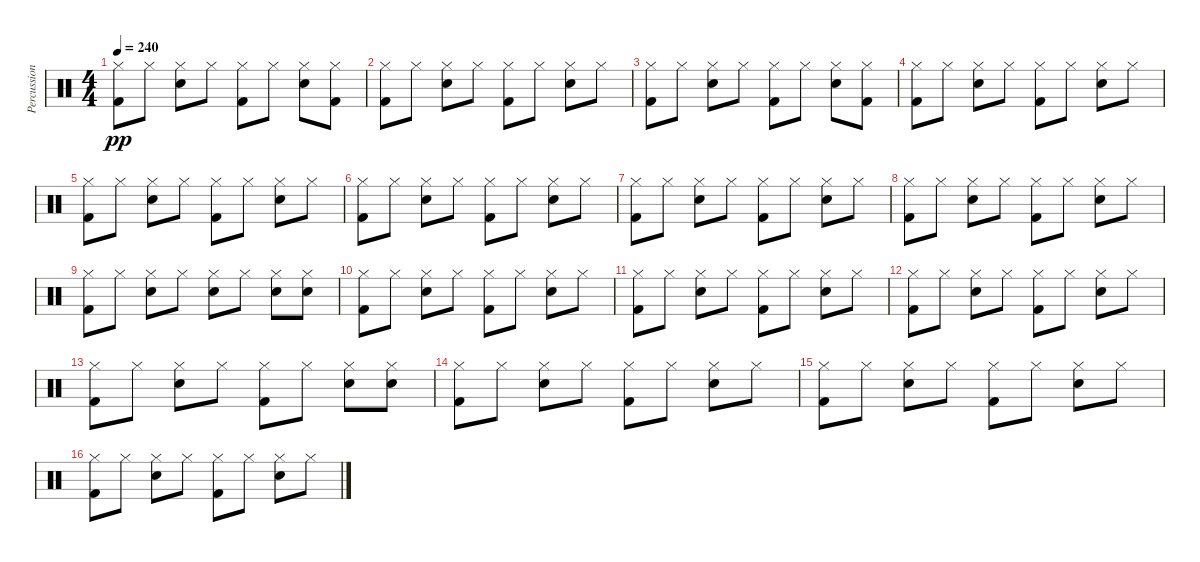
\track ("Percussion" "Percussion") {instrument percussion}
\staff {score}
\articulation defaults
\ts (4 4)
\tempo 240
\clef neutral
\ks c
("Kick (hit) 2" "Hi-Hat (closed)").8{dy pp} "Hi-Hat (closed)".8 ("Electric Snare (hit)" "Hi-Hat (closed)").8 "Hi-Hat (closed)".8 ("Kick (hit) 2" "Hi-Hat (closed)").8 "Hi-Hat (closed)".8 ("Electric Snare (hit)" "Hi-Hat (closed)").8 ("Kick (hit) 2" "Hi-Hat (closed)").8 |
("Kick (hit) 2" "Hi-Hat (closed)").8 "Hi-Hat (closed)".8 ("Electric Snare (hit)" "Hi-Hat (closed)").8 "Hi-Hat (closed)".8 ("Kick (hit) 2" "Hi-Hat (closed)").8 "Hi-Hat (closed)".8 ("Electric Snare (hit)" "Hi-Hat (closed)").8 "Hi-Hat (closed)".8 |
("Kick (hit) 2" "Hi-Hat (closed)").8 "Hi-Hat (closed)".8 ("Electric Snare (hit)" "Hi-Hat (closed)").8 "Hi-Hat (closed)".8 ("Kick (hit) 2" "Hi-Hat (closed)").8 "Hi-Hat (closed)".8 ("Electric Snare (hit)" "Hi-Hat (closed)").8 ("Kick (hit) 2" "Hi-Hat (closed)").8 |
("Kick (hit) 2" "Hi-Hat (closed)").8 "Hi-Hat (closed)".8 ("Electric Snare (hit)" "Hi-Hat (closed)").8 "Hi-Hat (closed)".8 ("Kick (hit) 2" "Hi-Hat (closed)").8 "Hi-Hat (closed)".8 ("Electric Snare (hit)" "Hi-Hat (closed)").8 "Hi-Hat (closed)".8 |
("Kick (hit) 2" "Hi-Hat (closed)").8 "Hi-Hat (closed)".8 ("Electric Snare (hit)" "Hi-Hat (closed)").8 "Hi-Hat (closed)".8 ("Kick (hit) 2" "Hi-Hat (closed)").8 "Hi-Hat (closed)".8 ("Electric Snare (hit)" "Hi-Hat (closed)").8 "Hi-Hat (closed)".8 |
("Kick (hit) 2" "Hi-Hat (closed)").8 "Hi-Hat (closed)".8 ("Electric Snare (hit)" "Hi-Hat (closed)").8 "Hi-Hat (closed)".8 ("Kick (hit) 2" "Hi-Hat (closed)").8 "Hi-Hat (closed)".8 ("Electric Snare (hit)" "Hi-Hat (closed)").8 "Hi-Hat (closed)".8 |
("Kick (hit) 2" "Hi-Hat (closed)").8 "Hi-Hat (closed)".8 ("Electric Snare (hit)" "Hi-Hat (closed)").8 "Hi-Hat (closed)".8 ("Kick (hit) 2" "Hi-Hat (closed)").8 "Hi-Hat (closed)".8 ("Electric Snare (hit)" "Hi-Hat (closed)").8 "Hi-Hat (closed)".8 |
("Kick (hit) 2" "Hi-Hat (closed)").8 "Hi-Hat (closed)".8 ("Electric Snare (hit)" "Hi-Hat (closed)").8 "Hi-Hat (closed)".8 ("Kick (hit) 2" "Hi-Hat (closed)").8 "Hi-Hat (closed)".8 ("Electric Snare (hit)" "Hi-Hat (closed)").8 "Hi-Hat (closed)".8 |
("Kick (hit) 2" "Hi-Hat (closed)").8 "Hi-Hat (closed)".8 ("Electric Snare (hit)" "Hi-Hat (closed)").8 "Hi-Hat (closed)".8 ("Electric Snare (hit)" "Hi-Hat (closed)").8 "Hi-Hat (closed)".8 ("Electric Snare (hit)" "Hi-Hat (closed)").8 ("Electric Snare (hit)" "Hi-Hat (closed)").8 |
("Kick (hit) 2" "Hi-Hat (closed)").8 "Hi-Hat (closed)".8 ("Electric Snare (hit)" "Hi-Hat (closed)").8 "Hi-Hat (closed)".8 ("Kick (hit) 2" "Hi-Hat (closed)").8 "Hi-Hat (closed)".8 ("Electric Snare (hit)" "Hi-Hat (closed)").8 "Hi-Hat (closed)".8 |
("Kick (hit) 2" "Hi-Hat (closed)").8 "Hi-Hat (closed)".8 ("Electric Snare (hit)" "Hi-Hat (closed)").8 "Hi-Hat (closed)".8 ("Kick (hit) 2" "Hi-Hat (closed)").8 "Hi-Hat (closed)".8 ("Electric Snare (hit)" "Hi-Hat (closed)").8 "Hi-Hat (closed)".8 |
("Kick (hit) 2" "Hi-Hat (closed)").8 "Hi-Hat (closed)".8 ("Electric Snare (hit)" "Hi-Hat (closed)").8 "Hi-Hat (closed)".8 ("Kick (hit) 2" "Hi-Hat (closed)").8 "Hi-Hat (closed)".8 ("Electric Snare (hit)" "Hi-Hat (closed)").8 "Hi-Hat (closed)".8 |
("Kick (hit) 2" "Hi-Hat (closed)").8 "Hi-Hat (closed)".8 ("Electric Snare (hit)" "Hi-Hat (closed)").8 "Hi-Hat (closed)".8 ("Kick (hit) 2" "Hi-Hat (closed)").8 "Hi-Hat (closed)".8 ("Electric Snare (hit)" "Hi-Hat (closed)").8 ("Electric Snare (hit)" "Hi-Hat (closed)").8 |
("Kick (hit) 2" "Hi-Hat (closed)").8 "Hi-Hat (closed)".8 ("Electric Snare (hit)" "Hi-Hat (closed)").8 "Hi-Hat (closed)".8 ("Kick (hit) 2" "Hi-Hat (closed)").8 "Hi-Hat (closed)".8 ("Electric Snare (hit)" "Hi-Hat (closed)").8 "Hi-Hat (closed)".8 |
("Kick (hit) 2" "Hi-Hat (closed)").8 "Hi-Hat (closed)".8 ("Electric Snare (hit)" "Hi-Hat (closed)").8 "Hi-Hat (closed)".8 ("Kick (hit) 2" "Hi-Hat (closed)").8 "Hi-Hat (closed)".8 ("Electric Snare (hit)" "Hi-Hat (closed)").8 "Hi-Hat (closed)".8 |
("Kick (hit) 2" "Hi-Hat (closed)").8 "Hi-Hat (closed)".8 ("Electric Snare (hit)" "Hi-Hat (closed)").8 "Hi-Hat (closed)".8 ("Kick (hit) 2" "Hi-Hat (closed)").8 "Hi-Hat (closed)".8 ("Electric Snare (hit)" "Hi-Hat (closed)").8 "Hi-Hat (closed)".8
